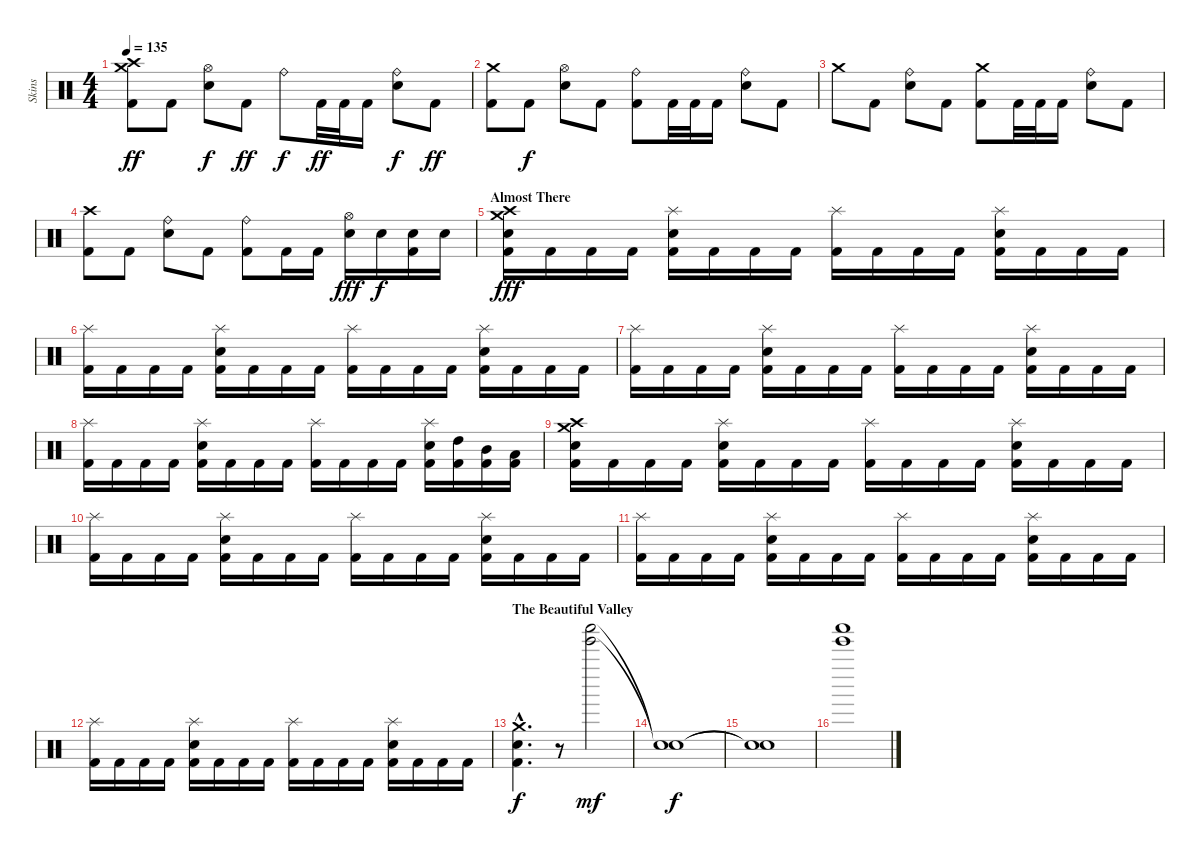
\track ("Skins" "Skins") {instrument percussion}
\staff {score}
\articulation defaults
\ts (4 4)
\tempo 135
\clef neutral
\ks c
("Crash medium (hit)" "Crash high (hit)" "Kick (hit) 2").8{dy ff} "Kick (hit) 2".8 ("Hi-Hat (open)" "Snare (hit) 2").8{dy f} "Kick (hit) 2".8{dy ff} "Ride (bell)".8{dy f} "Kick (hit) 2".32{dy ff} "Kick (hit) 2".32 "Kick (hit) 2".16 ("Ride (bell)" "Snare (hit) 2").8{dy f} "Kick (hit) 2".8{dy ff} |
("Crash medium (hit)" "Kick (hit) 2").8 "Kick (hit) 2".8{dy f} ("Hi-Hat (open)" "Snare (hit) 2").8 "Kick (hit) 2".8 ("Ride (bell)" "Kick (hit) 2").8 "Kick (hit) 2".32 "Kick (hit) 2".32 "Kick (hit) 2".16 ("Ride (bell)" "Snare (hit) 2").8 "Kick (hit) 2".8 |
"Crash medium (hit)".8 "Kick (hit) 2".8 ("Ride (bell)" "Snare (hit) 2").8 "Kick (hit) 2".8 ("Crash medium (hit)" "Kick (hit) 2").8 "Kick (hit) 2".32 "Kick (hit) 2".32 "Kick (hit) 2".16 ("Ride (bell)" "Snare (hit) 2").8 "Kick (hit) 2".8 |
("Crash high (hit)" "Kick (hit) 2").8 "Kick (hit) 2".8 ("Ride (bell)" "Snare (hit) 2").8 "Kick (hit) 2".8 ("Ride (bell)" "Kick (hit) 2").8 "Kick (hit) 2".16 "Kick (hit) 2".16 ("Hi-Hat (open)" "Snare (hit) 2").16{dy fff} "Snare (hit) 2".16{dy f} ("Snare (hit) 2" "Kick (hit) 2").16 "Snare (hit) 2".16 |
\section ("" "Almost There")
("Crash medium (hit)" "Crash high (hit)" "Snare (hit) 2" "Kick (hit) 2").16{dy fff} "Kick (hit) 2".16 "Kick (hit) 2".16 "Kick (hit) 2".16 ("Splash (hit)" "Snare (hit) 2" "Kick (hit) 2").16 "Kick (hit) 2".16 "Kick (hit) 2".16 "Kick (hit) 2".16 ("Splash (hit)" "Kick (hit) 2").16 "Kick (hit) 2".16 "Kick (hit) 2".16 "Kick (hit) 2".16 ("Splash (hit)" "Snare (hit) 2" "Kick (hit) 2").16 "Kick (hit) 2".16 "Kick (hit) 2".16 "Kick (hit) 2".16 |
("Splash (hit)" "Kick (hit) 2").16 "Kick (hit) 2".16 "Kick (hit) 2".16 "Kick (hit) 2".16 ("Splash (hit)" "Snare (hit) 2" "Kick (hit) 2").16 "Kick (hit) 2".16 "Kick (hit) 2".16 "Kick (hit) 2".16 ("Splash (hit)" "Kick (hit) 2").16 "Kick (hit) 2".16 "Kick (hit) 2".16 "Kick (hit) 2".16 ("Splash (hit)" "Snare (hit) 2" "Kick (hit) 2").16 "Kick (hit) 2".16 "Kick (hit) 2".16 "Kick (hit) 2".16 |
("Splash (hit)" "Kick (hit) 2").16 "Kick (hit) 2".16 "Kick (hit) 2".16 "Kick (hit) 2".16 ("Splash (hit)" "Snare (hit) 2" "Kick (hit) 2").16 "Kick (hit) 2".16 "Kick (hit) 2".16 "Kick (hit) 2".16 ("Splash (hit)" "Kick (hit) 2").16 "Kick (hit) 2".16 "Kick (hit) 2".16 "Kick (hit) 2".16 ("Splash (hit)" "Snare (hit) 2" "Kick (hit) 2").16 "Kick (hit) 2".16 "Kick (hit) 2".16 "Kick (hit) 2".16 |
("Splash (hit)" "Kick (hit) 2").16 "Kick (hit) 2".16 "Kick (hit) 2".16 "Kick (hit) 2".16 ("Splash (hit)" "Snare (hit) 2" "Kick (hit) 2").16 "Kick (hit) 2".16 "Kick (hit) 2".16 "Kick (hit) 2".16 ("Splash (hit)" "Kick (hit) 2").16 "Kick (hit) 2".16 "Kick (hit) 2".16 "Kick (hit) 2".16 ("Splash (hit)" "Snare (hit) 2" "Kick (hit) 2").16 ("High Tom (hit)" "Kick (hit) 2").16 ("Mid Tom (hit)" "Kick (hit) 2").16 ("Low Tom (hit)" "Kick (hit) 2").16 |
("Crash medium (hit)" "Crash high (hit)" "Snare (hit) 2" "Kick (hit) 2").16 "Kick (hit) 2".16 "Kick (hit) 2".16 "Kick (hit) 2".16 ("Splash (hit)" "Snare (hit) 2" "Kick (hit) 2").16 "Kick (hit) 2".16 "Kick (hit) 2".16 "Kick (hit) 2".16 ("Splash (hit)" "Kick (hit) 2").16 "Kick (hit) 2".16 "Kick (hit) 2".16 "Kick (hit) 2".16 ("Splash (hit)" "Snare (hit) 2" "Kick (hit) 2").16 "Kick (hit) 2".16 "Kick (hit) 2".16 "Kick (hit) 2".16 |
("Splash (hit)" "Kick (hit) 2").16 "Kick (hit) 2".16 "Kick (hit) 2".16 "Kick (hit) 2".16 ("Splash (hit)" "Snare (hit) 2" "Kick (hit) 2").16 "Kick (hit) 2".16 "Kick (hit) 2".16 "Kick (hit) 2".16 ("Splash (hit)" "Kick (hit) 2").16 "Kick (hit) 2".16 "Kick (hit) 2".16 "Kick (hit) 2".16 ("Splash (hit)" "Snare (hit) 2" "Kick (hit) 2").16 "Kick (hit) 2".16 "Kick (hit) 2".16 "Kick (hit) 2".16 |
("Splash (hit)" "Kick (hit) 2").16 "Kick (hit) 2".16 "Kick (hit) 2".16 "Kick (hit) 2".16 ("Splash (hit)" "Snare (hit) 2" "Kick (hit) 2").16 "Kick (hit) 2".16 "Kick (hit) 2".16 "Kick (hit) 2".16 ("Splash (hit)" "Kick (hit) 2").16 "Kick (hit) 2".16 "Kick (hit) 2".16 "Kick (hit) 2".16 ("Splash (hit)" "Snare (hit) 2" "Kick (hit) 2").16 "Kick (hit) 2".16 "Kick (hit) 2".16 "Kick (hit) 2".16 |
("Splash (hit)" "Kick (hit) 2").16 "Kick (hit) 2".16 "Kick (hit) 2".16 "Kick (hit) 2".16 ("Splash (hit)" "Snare (hit) 2" "Kick (hit) 2").16 "Kick (hit) 2".16 "Kick (hit) 2".16 "Kick (hit) 2".16 ("Splash (hit)" "Kick (hit) 2").16 "Kick (hit) 2".16 "Kick (hit) 2".16 "Kick (hit) 2".16 ("Splash (hit)" "Snare (hit) 2" "Kick (hit) 2").16 "Kick (hit) 2".16 "Kick (hit) 2".16 "Kick (hit) 2".16 |
\section ("" "The Beautiful Valley")
("Crash medium (hit)"{hac} "Snare (hit) 2"{hac} "Kick (hit) 2"{hac}).4{d dy f} r.8{volume 6} ("Tinkle Bell (hit)" "Shaker (hit)").2{dy mf volume 12} |
("Snare (hit)"{t} "Snare (hit)"{t}).1{dy f} |
("Snare (hit)"{t} "Snare (hit)"{t}).1 |
("Tinkle Bell (hit)" "Shaker (hit)").1{volume 12}
